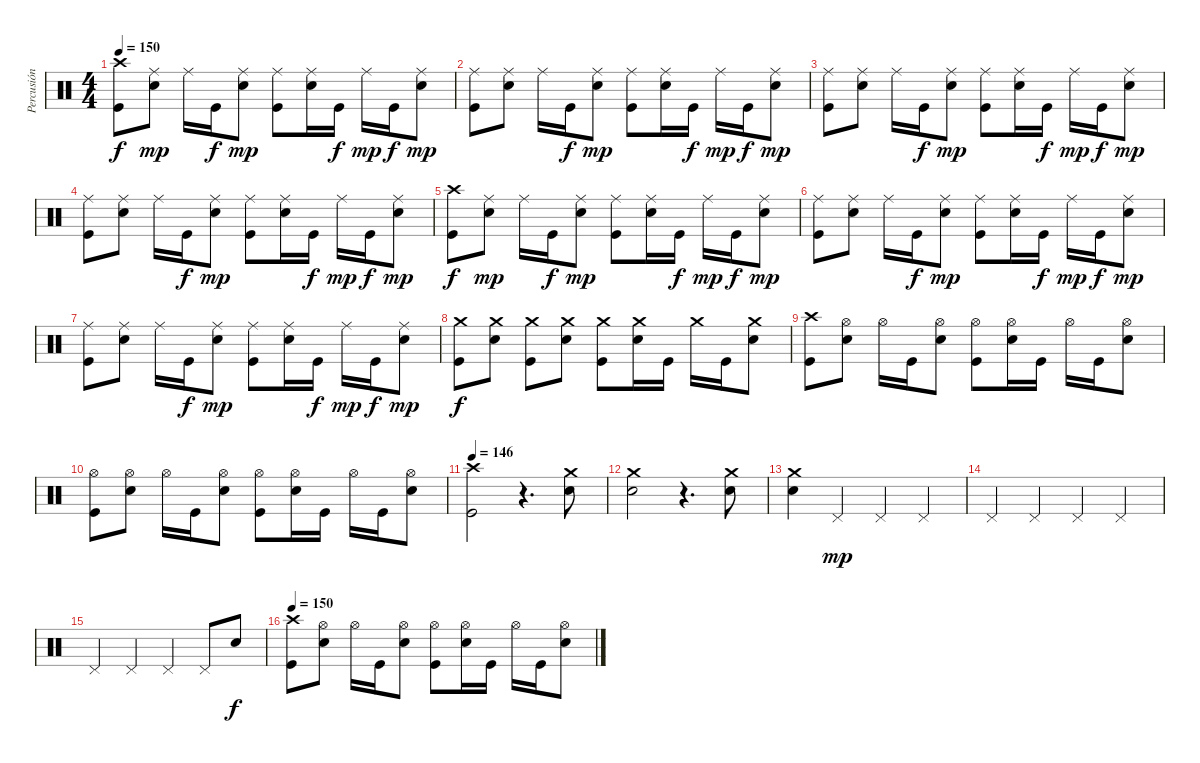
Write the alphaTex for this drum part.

\track ("Percusión" "Percusión") {instrument percussion}
\staff {score}
\articulation defaults
\ts (4 4)
\tempo 150
\clef neutral
\ks c
("Crash high (hit)" "Kick (hit)").8{dy f} ("Ride (middle)" "Snare (hit) 2").8{dy mp} "Ride (middle)".16 "Kick (hit)".16{dy f} ("Ride (middle)" "Snare (hit) 2").8{dy mp} ("Ride (middle)" "Kick (hit)").8 ("Ride (middle)" "Snare (hit) 2").16 "Kick (hit)".16{dy f} "Ride (middle)".16{dy mp} "Kick (hit)".16{dy f} ("Ride (middle)" "Snare (hit) 2").8{dy mp} |
("Ride (middle)" "Kick (hit)").8 ("Ride (middle)" "Snare (hit) 2").8 "Ride (middle)".16 "Kick (hit)".16{dy f} ("Ride (middle)" "Snare (hit) 2").8{dy mp} ("Ride (middle)" "Kick (hit)").8 ("Ride (middle)" "Snare (hit) 2").16 "Kick (hit)".16{dy f} "Ride (middle)".16{dy mp} "Kick (hit)".16{dy f} ("Ride (middle)" "Snare (hit) 2").8{dy mp} |
("Ride (middle)" "Kick (hit)").8 ("Ride (middle)" "Snare (hit) 2").8 "Ride (middle)".16 "Kick (hit)".16{dy f} ("Ride (middle)" "Snare (hit) 2").8{dy mp} ("Ride (middle)" "Kick (hit)").8 ("Ride (middle)" "Snare (hit) 2").16 "Kick (hit)".16{dy f} "Ride (middle)".16{dy mp} "Kick (hit)".16{dy f} ("Ride (middle)" "Snare (hit) 2").8{dy mp} |
("Ride (middle)" "Kick (hit)").8 ("Ride (middle)" "Snare (hit) 2").8 "Ride (middle)".16 "Kick (hit)".16{dy f} ("Ride (middle)" "Snare (hit) 2").8{dy mp} ("Ride (middle)" "Kick (hit)").8 ("Ride (middle)" "Snare (hit) 2").16 "Kick (hit)".16{dy f} "Ride (middle)".16{dy mp} "Kick (hit)".16{dy f} ("Ride (middle)" "Snare (hit) 2").8{dy mp} |
("Crash high (hit)" "Kick (hit)").8{dy f} ("Ride (middle)" "Snare (hit) 2").8{dy mp} "Ride (middle)".16 "Kick (hit)".16{dy f} ("Ride (middle)" "Snare (hit) 2").8{dy mp} ("Ride (middle)" "Kick (hit)").8 ("Ride (middle)" "Snare (hit) 2").16 "Kick (hit)".16{dy f} "Ride (middle)".16{dy mp} "Kick (hit)".16{dy f} ("Ride (middle)" "Snare (hit) 2").8{dy mp} |
("Ride (middle)" "Kick (hit)").8 ("Ride (middle)" "Snare (hit) 2").8 "Ride (middle)".16 "Kick (hit)".16{dy f} ("Ride (middle)" "Snare (hit) 2").8{dy mp} ("Ride (middle)" "Kick (hit)").8 ("Ride (middle)" "Snare (hit) 2").16 "Kick (hit)".16{dy f} "Ride (middle)".16{dy mp} "Kick (hit)".16{dy f} ("Ride (middle)" "Snare (hit) 2").8{dy mp} |
("Ride (middle)" "Kick (hit)").8 ("Ride (middle)" "Snare (hit) 2").8 "Ride (middle)".16 "Kick (hit)".16{dy f} ("Ride (middle)" "Snare (hit) 2").8{dy mp} ("Ride (middle)" "Kick (hit)").8 ("Ride (middle)" "Snare (hit) 2").16 "Kick (hit)".16{dy f} "Ride (middle)".16{dy mp} "Kick (hit)".16{dy f} ("Ride (middle)" "Snare (hit) 2").8{dy mp} |
("Crash medium (hit)" "Kick (hit)").8{dy f} ("Crash medium (hit)" "Snare (hit) 2").8 ("Crash medium (hit)" "Kick (hit)").8 ("Crash medium (hit)" "Snare (hit) 2").8 ("Crash medium (hit)" "Kick (hit)").8 ("Crash medium (hit)" "Snare (hit) 2").16 "Kick (hit)".16 "Crash medium (hit)".16 "Kick (hit)".16 ("Crash medium (hit)" "Snare (hit) 2").8 |
("Crash high (hit)" "Kick (hit)").8 ("Hi-Hat (open)" "Snare (hit) 2").8 "Hi-Hat (open)".16 "Kick (hit)".16 ("Hi-Hat (open)" "Snare (hit) 2").8 ("Hi-Hat (open)" "Kick (hit)").8 ("Hi-Hat (open)" "Snare (hit) 2").16 "Kick (hit)".16 "Hi-Hat (open)".16 "Kick (hit)".16 ("Hi-Hat (open)" "Snare (hit) 2").8 |
("Hi-Hat (open)" "Kick (hit)").8 ("Hi-Hat (open)" "Snare (hit) 2").8 "Hi-Hat (open)".16 "Kick (hit)".16 ("Hi-Hat (open)" "Snare (hit) 2").8 ("Hi-Hat (open)" "Kick (hit)").8 ("Hi-Hat (open)" "Snare (hit) 2").16 "Kick (hit)".16 "Hi-Hat (open)".16 "Kick (hit)".16 ("Hi-Hat (open)" "Snare (hit) 2").8 |
\tempo 146
("Crash high (hit)" "Kick (hit)").2 r.4{d} ("Crash medium (hit)" "Snare (hit) 2").8 |
("Crash medium (hit)" "Snare (hit) 2").2 r.4{d} ("Crash medium (hit)" "Snare (hit) 2").8 |
("Crash medium (hit)" "Snare (hit) 2").4 "Pedal Hi-Hat (hit)".4{dy mp} "Pedal Hi-Hat (hit)".4 "Pedal Hi-Hat (hit)".4 |
"Pedal Hi-Hat (hit)".4 "Pedal Hi-Hat (hit)".4 "Pedal Hi-Hat (hit)".4 "Pedal Hi-Hat (hit)".4 |
"Pedal Hi-Hat (hit)".4 "Pedal Hi-Hat (hit)".4 "Pedal Hi-Hat (hit)".4 "Pedal Hi-Hat (hit)".8 "Snare (hit) 2".8{dy f} |
\tempo 150
("Crash high (hit)" "Kick (hit)").8 ("Hi-Hat (open)" "Snare (hit) 2").8 "Hi-Hat (open)".16 "Kick (hit)".16 ("Hi-Hat (open)" "Snare (hit) 2").8 ("Hi-Hat (open)" "Kick (hit)").8 ("Hi-Hat (open)" "Snare (hit) 2").16 "Kick (hit)".16 "Hi-Hat (open)".16 "Kick (hit)".16 ("Hi-Hat (open)" "Snare (hit) 2").8
